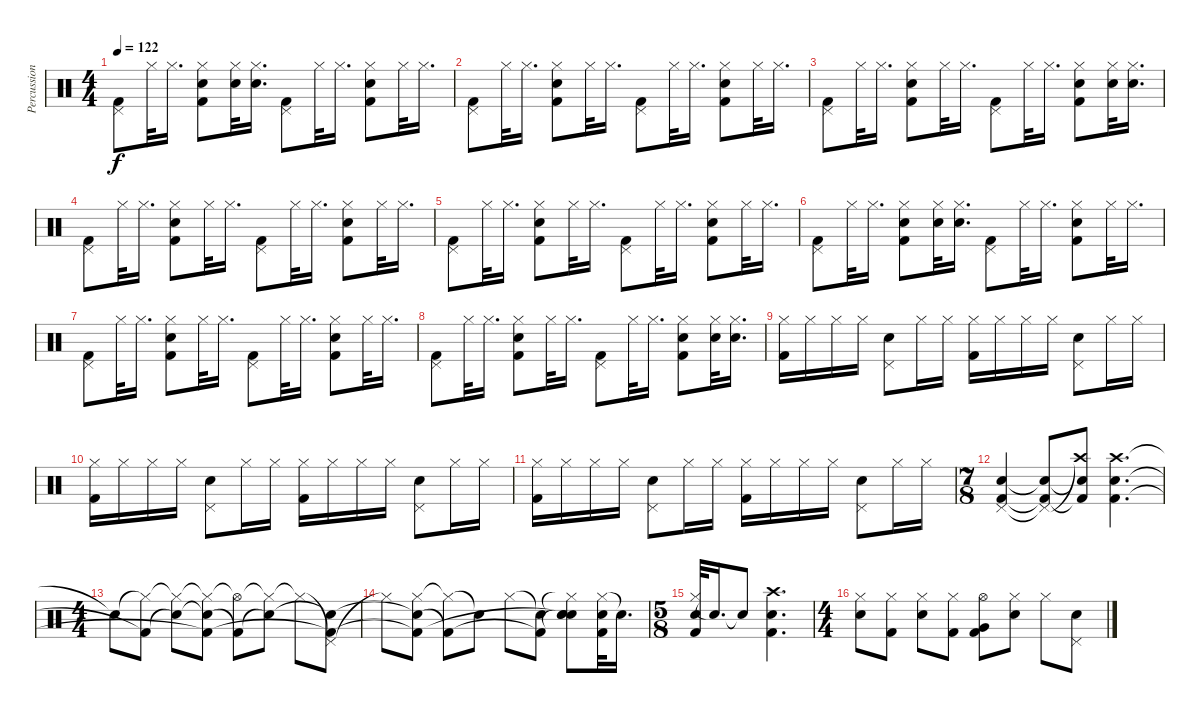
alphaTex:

\track ("Percussion" "Percussion") {instrument percussion}
\staff {score}
\articulation defaults
\ts (4 4)
\tempo 122
\clef neutral
\ks c
("Pedal Hi-Hat (hit)" "Kick (hit) 2").8{dy f} "Hi-Hat (closed)".32 "Hi-Hat (closed)".16{d} ("Hi-Hat (closed)" "Snare (hit) 2" "Kick (hit) 2").8 ("Hi-Hat (closed)" "Snare (hit) 2").32 ("Hi-Hat (closed)" "Snare (hit) 2").16{d} ("Pedal Hi-Hat (hit)" "Kick (hit) 2").8 "Hi-Hat (closed)".32 "Hi-Hat (closed)".16{d} ("Hi-Hat (closed)" "Snare (hit) 2" "Kick (hit) 2").8 "Hi-Hat (closed)".32 "Hi-Hat (closed)".16{d} |
("Pedal Hi-Hat (hit)" "Kick (hit) 2").8 "Hi-Hat (closed)".32 "Hi-Hat (closed)".16{d} ("Hi-Hat (closed)" "Snare (hit) 2" "Kick (hit) 2").8 "Hi-Hat (closed)".32 "Hi-Hat (closed)".16{d} ("Pedal Hi-Hat (hit)" "Kick (hit) 2").8 "Hi-Hat (closed)".32 "Hi-Hat (closed)".16{d} ("Hi-Hat (closed)" "Snare (hit) 2" "Kick (hit) 2").8 "Hi-Hat (closed)".32 "Hi-Hat (closed)".16{d} |
("Pedal Hi-Hat (hit)" "Kick (hit) 2").8 "Hi-Hat (closed)".32 "Hi-Hat (closed)".16{d} ("Hi-Hat (closed)" "Snare (hit) 2" "Kick (hit) 2").8 "Hi-Hat (closed)".32 "Hi-Hat (closed)".16{d} ("Pedal Hi-Hat (hit)" "Kick (hit) 2").8 "Hi-Hat (closed)".32 "Hi-Hat (closed)".16{d} ("Hi-Hat (closed)" "Snare (hit) 2" "Kick (hit) 2").8 ("Hi-Hat (closed)" "Snare (hit) 2").32 ("Hi-Hat (closed)" "Snare (hit) 2").16{d} |
("Pedal Hi-Hat (hit)" "Kick (hit) 2").8 "Hi-Hat (closed)".32 "Hi-Hat (closed)".16{d} ("Hi-Hat (closed)" "Snare (hit) 2" "Kick (hit) 2").8 "Hi-Hat (closed)".32 "Hi-Hat (closed)".16{d} ("Pedal Hi-Hat (hit)" "Kick (hit) 2").8 "Hi-Hat (closed)".32 "Hi-Hat (closed)".16{d} ("Hi-Hat (closed)" "Snare (hit) 2" "Kick (hit) 2").8 "Hi-Hat (closed)".32 "Hi-Hat (closed)".16{d} |
("Pedal Hi-Hat (hit)" "Kick (hit) 2").8 "Hi-Hat (closed)".32 "Hi-Hat (closed)".16{d} ("Hi-Hat (closed)" "Snare (hit) 2" "Kick (hit) 2").8 "Hi-Hat (closed)".32 "Hi-Hat (closed)".16{d} ("Pedal Hi-Hat (hit)" "Kick (hit) 2").8 "Hi-Hat (closed)".32 "Hi-Hat (closed)".16{d} ("Hi-Hat (closed)" "Snare (hit) 2" "Kick (hit) 2").8 "Hi-Hat (closed)".32 "Hi-Hat (closed)".16{d} |
("Pedal Hi-Hat (hit)" "Kick (hit) 2").8 "Hi-Hat (closed)".32 "Hi-Hat (closed)".16{d} ("Hi-Hat (closed)" "Snare (hit) 2" "Kick (hit) 2").8 ("Hi-Hat (closed)" "Snare (hit) 2").32 ("Hi-Hat (closed)" "Snare (hit) 2").16{d} ("Pedal Hi-Hat (hit)" "Kick (hit) 2").8 "Hi-Hat (closed)".32 "Hi-Hat (closed)".16{d} ("Hi-Hat (closed)" "Snare (hit) 2" "Kick (hit) 2").8 "Hi-Hat (closed)".32 "Hi-Hat (closed)".16{d} |
("Pedal Hi-Hat (hit)" "Kick (hit) 2").8 "Hi-Hat (closed)".32 "Hi-Hat (closed)".16{d} ("Hi-Hat (closed)" "Snare (hit) 2" "Kick (hit) 2").8 "Hi-Hat (closed)".32 "Hi-Hat (closed)".16{d} ("Pedal Hi-Hat (hit)" "Kick (hit) 2").8 "Hi-Hat (closed)".32 "Hi-Hat (closed)".16{d} ("Hi-Hat (closed)" "Snare (hit) 2" "Kick (hit) 2").8 "Hi-Hat (closed)".32 "Hi-Hat (closed)".16{d} |
("Pedal Hi-Hat (hit)" "Kick (hit) 2").8 "Hi-Hat (closed)".32 "Hi-Hat (closed)".16{d} ("Hi-Hat (closed)" "Snare (hit) 2" "Kick (hit) 2").8 "Hi-Hat (closed)".32 "Hi-Hat (closed)".16{d} ("Pedal Hi-Hat (hit)" "Kick (hit) 2").8 "Hi-Hat (closed)".32 "Hi-Hat (closed)".16{d} ("Hi-Hat (closed)" "Snare (hit) 2" "Kick (hit) 2").8 ("Hi-Hat (closed)" "Snare (hit) 2").32 ("Hi-Hat (closed)" "Snare (hit) 2").16{d} |
("Hi-Hat (closed)" "Kick (hit) 2").16 "Hi-Hat (closed)".16 "Hi-Hat (closed)".16 "Hi-Hat (closed)".16 ("Pedal Hi-Hat (hit)" "Snare (hit) 2").8 "Hi-Hat (closed)".16 "Hi-Hat (closed)".16 ("Hi-Hat (closed)" "Kick (hit) 2").16 "Hi-Hat (closed)".16 "Hi-Hat (closed)".16 "Hi-Hat (closed)".16 ("Pedal Hi-Hat (hit)" "Snare (hit) 2").8 "Hi-Hat (closed)".16 "Hi-Hat (closed)".16 |
("Hi-Hat (closed)" "Kick (hit) 2").16 "Hi-Hat (closed)".16 "Hi-Hat (closed)".16 "Hi-Hat (closed)".16 ("Pedal Hi-Hat (hit)" "Snare (hit) 2").8 "Hi-Hat (closed)".16 "Hi-Hat (closed)".16 ("Hi-Hat (closed)" "Kick (hit) 2").16 "Hi-Hat (closed)".16 "Hi-Hat (closed)".16 "Hi-Hat (closed)".16 ("Pedal Hi-Hat (hit)" "Snare (hit) 2").8 "Hi-Hat (closed)".16 "Hi-Hat (closed)".16 |
("Hi-Hat (closed)" "Kick (hit) 2").16 "Hi-Hat (closed)".16 "Hi-Hat (closed)".16 "Hi-Hat (closed)".16 ("Pedal Hi-Hat (hit)" "Snare (hit) 2").8 "Hi-Hat (closed)".16 "Hi-Hat (closed)".16 ("Hi-Hat (closed)" "Kick (hit) 2").16 "Hi-Hat (closed)".16 "Hi-Hat (closed)".16 "Hi-Hat (closed)".16 ("Pedal Hi-Hat (hit)" "Snare (hit) 2").8 "Hi-Hat (closed)".16 "Hi-Hat (closed)".16 |
\ts (7 8)
("Pedal Hi-Hat (hit)" "Snare (hit) 2" "Kick (hit) 2").4 ("Pedal Hi-Hat (hit)"{t} "Snare (hit) 2"{t} "Kick (hit) 2"{t}).8 ("Crash high (hit)"{t} "Electric Snare (hit)"{t} "Kick (hit) 2"{t}).8 ("Crash high (hit)" "Snare (hit) 2" "Kick (hit) 2").4{d} |
\ts (4 4)
"Electric Snare (hit)"{t}.8 ("Hi-Hat (closed)"{t} "Kick (hit) 2"{t}).8 ("Hi-Hat (closed)"{t} "Electric Snare (hit)"{t}).8 ("Hi-Hat (closed)"{t} "Electric Snare (hit)"{t} "Kick (hit) 2"{t}).8 ("Hi-Hat (open)"{t} "Kick (hit) 2"{t}).8 ("Hi-Hat (closed)"{t} "Electric Snare (hit)"{t}).8 "Hi-Hat (closed)"{t}.8 ("Pedal Hi-Hat (hit)"{t} "Electric Snare (hit)"{t} "Kick (hit) 2"{t}).8 |
"Hi-Hat (closed)"{t}.8 ("Hi-Hat (closed)" "Electric Snare (hit)"{t} "Kick (hit) 2"{t}).8 ("Hi-Hat (closed)"{t} "Kick (hit) 2"{t}).8 "Electric Snare (hit)"{t}.8 "Hi-Hat (closed)".8 ("Electric Snare (hit)"{t} "Kick (hit) 2"{t}).8 ("Hi-Hat (closed)"{t} "Snare (hit)"{t} "Snare (hit)"{t} "Snare (hit)").8 ("Hi-Hat (closed)" "Snare (hit) 2" "Kick (hit) 2").32 "Electric Snare (hit)"{t}.16{d} |
\ts (5 8)
("Hi-Hat (closed)" "Snare (hit) 2" "Kick (hit) 2").32 "Electric Snare (hit)"{t}.16{d} "Electric Snare (hit)"{t}.8 ("Crash high (hit)" "Snare (hit) 2" "Kick (hit) 2").4{d} |
\ts (4 4)
("Hi-Hat (closed)" "Snare (hit) 2").8 ("Hi-Hat (closed)" "Kick (hit) 2").8 ("Hi-Hat (closed)" "Snare (hit) 2").8 ("Hi-Hat (closed)" "Kick (hit) 2").8 ("Hi-Hat (open)" "Very Low Tom (hit)" "Kick (hit) 2").8 ("Hi-Hat (closed)" "Snare (hit) 2").8 "Hi-Hat (closed)".8 ("Pedal Hi-Hat (hit)" "Snare (hit) 2").8
